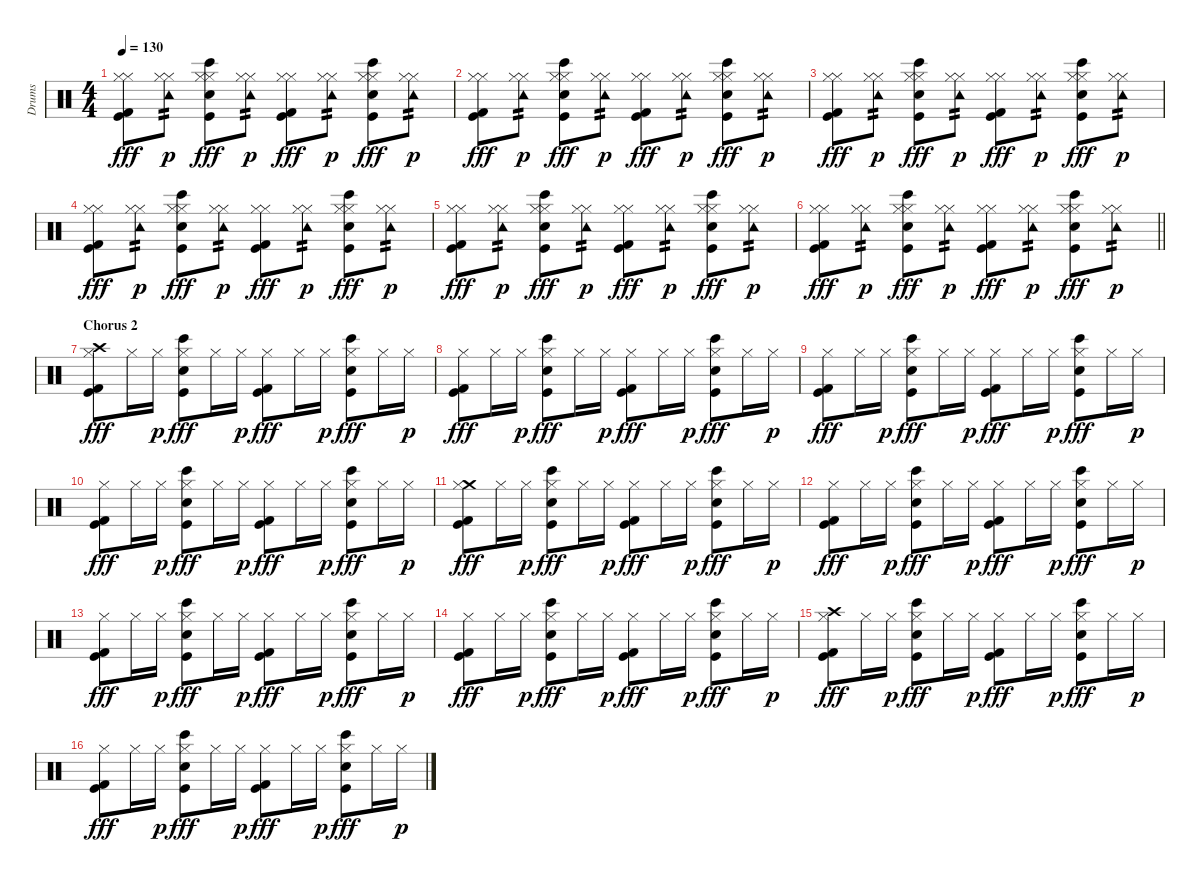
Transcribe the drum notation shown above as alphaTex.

\track ("Drums" "Drums") {instrument percussion}
\staff {score}
\articulation defaults
\ts (4 4)
\tempo 130
\clef neutral
\ks c
("Hi-Hat (closed)" "Hi-Hat (closed)" "Kick (hit) 2" "Kick (hit)").8{dy fff} ("Tambourine (hit)" "Hi-Hat (closed)" "Hi-Hat (closed)").8{tp 2 dy p} ("Hi-Hat (closed)" "Bongo High (hit)" "Hi-Hat (closed)" "Snare (hit) 2" "Kick (hit)").8{dy fff} ("Tambourine (hit)" "Hi-Hat (closed)" "Hi-Hat (closed)").8{tp 2 dy p} ("Hi-Hat (closed)" "Hi-Hat (closed)" "Kick (hit) 2" "Kick (hit)").8{dy fff} ("Tambourine (hit)" "Hi-Hat (closed)" "Hi-Hat (closed)").8{tp 2 dy p} ("Hi-Hat (closed)" "Bongo High (hit)" "Hi-Hat (closed)" "Snare (hit) 2" "Kick (hit)").8{dy fff} ("Tambourine (hit)" "Hi-Hat (closed)" "Hi-Hat (closed)").8{tp 2 dy p} |
("Hi-Hat (closed)" "Hi-Hat (closed)" "Kick (hit) 2" "Kick (hit)").8{dy fff} ("Tambourine (hit)" "Hi-Hat (closed)" "Hi-Hat (closed)").8{tp 2 dy p} ("Hi-Hat (closed)" "Bongo High (hit)" "Hi-Hat (closed)" "Snare (hit) 2" "Kick (hit)").8{dy fff} ("Tambourine (hit)" "Hi-Hat (closed)" "Hi-Hat (closed)").8{tp 2 dy p} ("Hi-Hat (closed)" "Hi-Hat (closed)" "Kick (hit) 2" "Kick (hit)").8{dy fff} ("Tambourine (hit)" "Hi-Hat (closed)" "Hi-Hat (closed)").8{tp 2 dy p} ("Hi-Hat (closed)" "Bongo High (hit)" "Hi-Hat (closed)" "Snare (hit) 2" "Kick (hit)").8{dy fff} ("Tambourine (hit)" "Hi-Hat (closed)" "Hi-Hat (closed)").8{tp 2 dy p} |
("Hi-Hat (closed)" "Hi-Hat (closed)" "Kick (hit) 2" "Kick (hit)").8{dy fff} ("Tambourine (hit)" "Hi-Hat (closed)" "Hi-Hat (closed)").8{tp 2 dy p} ("Hi-Hat (closed)" "Bongo High (hit)" "Hi-Hat (closed)" "Snare (hit) 2" "Kick (hit)").8{dy fff} ("Tambourine (hit)" "Hi-Hat (closed)" "Hi-Hat (closed)").8{tp 2 dy p} ("Hi-Hat (closed)" "Hi-Hat (closed)" "Kick (hit) 2" "Kick (hit)").8{dy fff} ("Tambourine (hit)" "Hi-Hat (closed)" "Hi-Hat (closed)").8{tp 2 dy p} ("Hi-Hat (closed)" "Bongo High (hit)" "Hi-Hat (closed)" "Snare (hit) 2" "Kick (hit)").8{dy fff} ("Tambourine (hit)" "Hi-Hat (closed)" "Hi-Hat (closed)").8{tp 2 dy p} |
("Hi-Hat (closed)" "Hi-Hat (closed)" "Kick (hit) 2" "Kick (hit)").8{dy fff} ("Tambourine (hit)" "Hi-Hat (closed)" "Hi-Hat (closed)").8{tp 2 dy p} ("Hi-Hat (closed)" "Bongo High (hit)" "Hi-Hat (closed)" "Snare (hit) 2" "Kick (hit)").8{dy fff} ("Tambourine (hit)" "Hi-Hat (closed)" "Hi-Hat (closed)").8{tp 2 dy p} ("Hi-Hat (closed)" "Hi-Hat (closed)" "Kick (hit) 2" "Kick (hit)").8{dy fff} ("Tambourine (hit)" "Hi-Hat (closed)" "Hi-Hat (closed)").8{tp 2 dy p} ("Hi-Hat (closed)" "Bongo High (hit)" "Hi-Hat (closed)" "Snare (hit) 2" "Kick (hit)").8{dy fff} ("Tambourine (hit)" "Hi-Hat (closed)" "Hi-Hat (closed)").8{tp 2 dy p} |
("Hi-Hat (closed)" "Hi-Hat (closed)" "Kick (hit) 2" "Kick (hit)").8{dy fff} ("Tambourine (hit)" "Hi-Hat (closed)" "Hi-Hat (closed)").8{tp 2 dy p} ("Hi-Hat (closed)" "Bongo High (hit)" "Hi-Hat (closed)" "Snare (hit) 2" "Kick (hit)").8{dy fff} ("Tambourine (hit)" "Hi-Hat (closed)" "Hi-Hat (closed)").8{tp 2 dy p} ("Hi-Hat (closed)" "Hi-Hat (closed)" "Kick (hit) 2" "Kick (hit)").8{dy fff} ("Tambourine (hit)" "Hi-Hat (closed)" "Hi-Hat (closed)").8{tp 2 dy p} ("Hi-Hat (closed)" "Bongo High (hit)" "Hi-Hat (closed)" "Snare (hit) 2" "Kick (hit)").8{dy fff} ("Tambourine (hit)" "Hi-Hat (closed)" "Hi-Hat (closed)").8{tp 2 dy p} |
\barLineRight lightlight
("Hi-Hat (closed)" "Hi-Hat (closed)" "Kick (hit) 2" "Kick (hit)").8{dy fff} ("Tambourine (hit)" "Hi-Hat (closed)" "Hi-Hat (closed)").8{tp 2 dy p} ("Hi-Hat (closed)" "Bongo High (hit)" "Hi-Hat (closed)" "Snare (hit) 2" "Kick (hit)").8{dy fff} ("Tambourine (hit)" "Hi-Hat (closed)" "Hi-Hat (closed)").8{tp 2 dy p} ("Hi-Hat (closed)" "Hi-Hat (closed)" "Kick (hit) 2" "Kick (hit)").8{dy fff} ("Tambourine (hit)" "Hi-Hat (closed)" "Hi-Hat (closed)").8{tp 2 dy p} ("Hi-Hat (closed)" "Bongo High (hit)" "Hi-Hat (closed)" "Snare (hit) 2" "Kick (hit)").8{dy fff} ("Tambourine (hit)" "Hi-Hat (closed)" "Hi-Hat (closed)").8{tp 2 dy p} |
\section ("" "Chorus 2")
("Crash high (hit)" "Hi-Hat (closed)" "Kick (hit) 2" "Kick (hit)").8{dy fff} "Hi-Hat (closed)".16 "Hi-Hat (closed)".16{dy p} ("Bongo High (hit)" "Hi-Hat (closed)" "Snare (hit) 2" "Kick (hit)").8{dy fff} "Hi-Hat (closed)".16 "Hi-Hat (closed)".16{dy p} ("Hi-Hat (closed)" "Kick (hit) 2" "Kick (hit)").8{dy fff} "Hi-Hat (closed)".16 "Hi-Hat (closed)".16{dy p} ("Bongo High (hit)" "Hi-Hat (closed)" "Snare (hit) 2" "Kick (hit)").8{dy fff} "Hi-Hat (closed)".16 "Hi-Hat (closed)".16{dy p} |
("Hi-Hat (closed)" "Kick (hit) 2" "Kick (hit)").8{dy fff} "Hi-Hat (closed)".16 "Hi-Hat (closed)".16{dy p} ("Bongo High (hit)" "Hi-Hat (closed)" "Snare (hit) 2" "Kick (hit)").8{dy fff} "Hi-Hat (closed)".16 "Hi-Hat (closed)".16{dy p} ("Hi-Hat (closed)" "Kick (hit) 2" "Kick (hit)").8{dy fff} "Hi-Hat (closed)".16 "Hi-Hat (closed)".16{dy p} ("Bongo High (hit)" "Hi-Hat (closed)" "Snare (hit) 2" "Kick (hit)").8{dy fff} "Hi-Hat (closed)".16 "Hi-Hat (closed)".16{dy p} |
("Hi-Hat (closed)" "Kick (hit) 2" "Kick (hit)").8{dy fff} "Hi-Hat (closed)".16 "Hi-Hat (closed)".16{dy p} ("Bongo High (hit)" "Hi-Hat (closed)" "Snare (hit) 2" "Kick (hit)").8{dy fff} "Hi-Hat (closed)".16 "Hi-Hat (closed)".16{dy p} ("Hi-Hat (closed)" "Kick (hit) 2" "Kick (hit)").8{dy fff} "Hi-Hat (closed)".16 "Hi-Hat (closed)".16{dy p} ("Bongo High (hit)" "Hi-Hat (closed)" "Snare (hit) 2" "Kick (hit)").8{dy fff} "Hi-Hat (closed)".16 "Hi-Hat (closed)".16{dy p} |
("Hi-Hat (closed)" "Kick (hit) 2" "Kick (hit)").8{dy fff} "Hi-Hat (closed)".16 "Hi-Hat (closed)".16{dy p} ("Bongo High (hit)" "Hi-Hat (closed)" "Snare (hit) 2" "Kick (hit)").8{dy fff} "Hi-Hat (closed)".16 "Hi-Hat (closed)".16{dy p} ("Hi-Hat (closed)" "Kick (hit) 2" "Kick (hit)").8{dy fff} "Hi-Hat (closed)".16 "Hi-Hat (closed)".16{dy p} ("Bongo High (hit)" "Hi-Hat (closed)" "Snare (hit) 2" "Kick (hit)").8{dy fff} "Hi-Hat (closed)".16 "Hi-Hat (closed)".16{dy p} |
("Crash medium (hit)" "Hi-Hat (closed)" "Kick (hit) 2" "Kick (hit)").8{dy fff} "Hi-Hat (closed)".16 "Hi-Hat (closed)".16{dy p} ("Bongo High (hit)" "Hi-Hat (closed)" "Snare (hit) 2" "Kick (hit)").8{dy fff} "Hi-Hat (closed)".16 "Hi-Hat (closed)".16{dy p} ("Hi-Hat (closed)" "Kick (hit) 2" "Kick (hit)").8{dy fff} "Hi-Hat (closed)".16 "Hi-Hat (closed)".16{dy p} ("Bongo High (hit)" "Hi-Hat (closed)" "Snare (hit) 2" "Kick (hit)").8{dy fff} "Hi-Hat (closed)".16 "Hi-Hat (closed)".16{dy p} |
("Hi-Hat (closed)" "Kick (hit) 2" "Kick (hit)").8{dy fff} "Hi-Hat (closed)".16 "Hi-Hat (closed)".16{dy p} ("Bongo High (hit)" "Hi-Hat (closed)" "Snare (hit) 2" "Kick (hit)").8{dy fff} "Hi-Hat (closed)".16 "Hi-Hat (closed)".16{dy p} ("Hi-Hat (closed)" "Kick (hit) 2" "Kick (hit)").8{dy fff} "Hi-Hat (closed)".16 "Hi-Hat (closed)".16{dy p} ("Bongo High (hit)" "Hi-Hat (closed)" "Snare (hit) 2" "Kick (hit)").8{dy fff} "Hi-Hat (closed)".16 "Hi-Hat (closed)".16{dy p} |
("Hi-Hat (closed)" "Kick (hit) 2" "Kick (hit)").8{dy fff} "Hi-Hat (closed)".16 "Hi-Hat (closed)".16{dy p} ("Bongo High (hit)" "Hi-Hat (closed)" "Snare (hit) 2" "Kick (hit)").8{dy fff} "Hi-Hat (closed)".16 "Hi-Hat (closed)".16{dy p} ("Hi-Hat (closed)" "Kick (hit) 2" "Kick (hit)").8{dy fff} "Hi-Hat (closed)".16 "Hi-Hat (closed)".16{dy p} ("Bongo High (hit)" "Hi-Hat (closed)" "Snare (hit) 2" "Kick (hit)").8{dy fff} "Hi-Hat (closed)".16 "Hi-Hat (closed)".16{dy p} |
("Hi-Hat (closed)" "Kick (hit) 2" "Kick (hit)").8{dy fff} "Hi-Hat (closed)".16 "Hi-Hat (closed)".16{dy p} ("Bongo High (hit)" "Hi-Hat (closed)" "Snare (hit) 2" "Kick (hit)").8{dy fff} "Hi-Hat (closed)".16 "Hi-Hat (closed)".16{dy p} ("Hi-Hat (closed)" "Kick (hit) 2" "Kick (hit)").8{dy fff} "Hi-Hat (closed)".16 "Hi-Hat (closed)".16{dy p} ("Bongo High (hit)" "Hi-Hat (closed)" "Snare (hit) 2" "Kick (hit)").8{dy fff} "Hi-Hat (closed)".16 "Hi-Hat (closed)".16{dy p} |
("Crash high (hit)" "Hi-Hat (closed)" "Kick (hit) 2" "Kick (hit)").8{dy fff} "Hi-Hat (closed)".16 "Hi-Hat (closed)".16{dy p} ("Bongo High (hit)" "Hi-Hat (closed)" "Snare (hit) 2" "Kick (hit)").8{dy fff} "Hi-Hat (closed)".16 "Hi-Hat (closed)".16{dy p} ("Hi-Hat (closed)" "Kick (hit) 2" "Kick (hit)").8{dy fff} "Hi-Hat (closed)".16 "Hi-Hat (closed)".16{dy p} ("Bongo High (hit)" "Hi-Hat (closed)" "Snare (hit) 2" "Kick (hit)").8{dy fff} "Hi-Hat (closed)".16 "Hi-Hat (closed)".16{dy p} |
("Hi-Hat (closed)" "Kick (hit) 2" "Kick (hit)").8{dy fff} "Hi-Hat (closed)".16 "Hi-Hat (closed)".16{dy p} ("Bongo High (hit)" "Hi-Hat (closed)" "Snare (hit) 2" "Kick (hit)").8{dy fff} "Hi-Hat (closed)".16 "Hi-Hat (closed)".16{dy p} ("Hi-Hat (closed)" "Kick (hit) 2" "Kick (hit)").8{dy fff} "Hi-Hat (closed)".16 "Hi-Hat (closed)".16{dy p} ("Bongo High (hit)" "Hi-Hat (closed)" "Snare (hit) 2" "Kick (hit)").8{dy fff} "Hi-Hat (closed)".16 "Hi-Hat (closed)".16{dy p}
